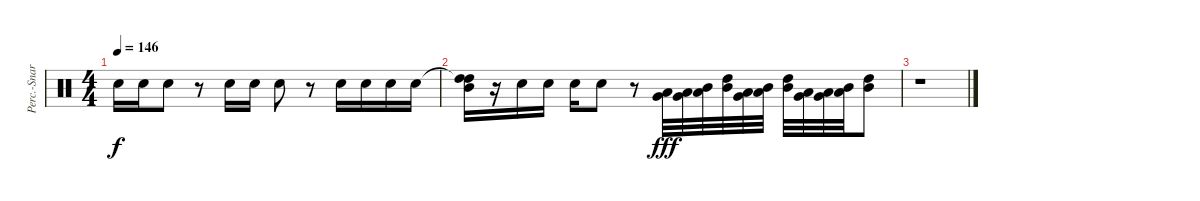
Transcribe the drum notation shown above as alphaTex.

\track ("Perc.-Snare" "Perc.-Snar") {instrument percussion}
\staff {score}
\articulation defaults
\ts (4 4)
\tempo 146
\clef neutral
\ks c "Snare (hit) 2".16{dy f} "Snare (hit) 2".16 "Snare (hit) 2".8
r.8 "Snare (hit) 2".16 "Snare (hit) 2".16 "Snare (hit) 2".8 r.8 "Snare (hit) 2".16 "Snare (hit) 2".16 "Snare (hit) 2".16 "Snare (hit) 2".16 |
("High Tom (hit)"{t} "High Tom (hit)" "Mid Tom (hit)").16 r.16 "Snare (hit) 2".16 "Snare (hit) 2".16 "Snare (hit) 2".16 "Snare (hit) 2".8 r.8 ("Very Low Tom (hit)" "Low Floor Tom (hit)").32{dy fff} ("Low Tom (hit)" "Very Low Tom (hit)").32 ("Mid Tom (hit)" "Low Tom (hit)").32 ("High Tom (hit)" "Mid Tom (hit)").32 ("Low Tom (hit)" "Very Low Tom (hit)").32 ("Mid Tom (hit)" "Low Tom (hit)").32 ("High Tom (hit)" "Mid Tom (hit)").32 ("Very Low Tom (hit)" "Low Floor Tom (hit)").32 ("Low Tom (hit)" "Very Low Tom (hit)").32 ("Mid Tom (hit)" "Low Tom (hit)").32 ("High Tom (hit)" "Mid Tom (hit)").8 |
r.1
